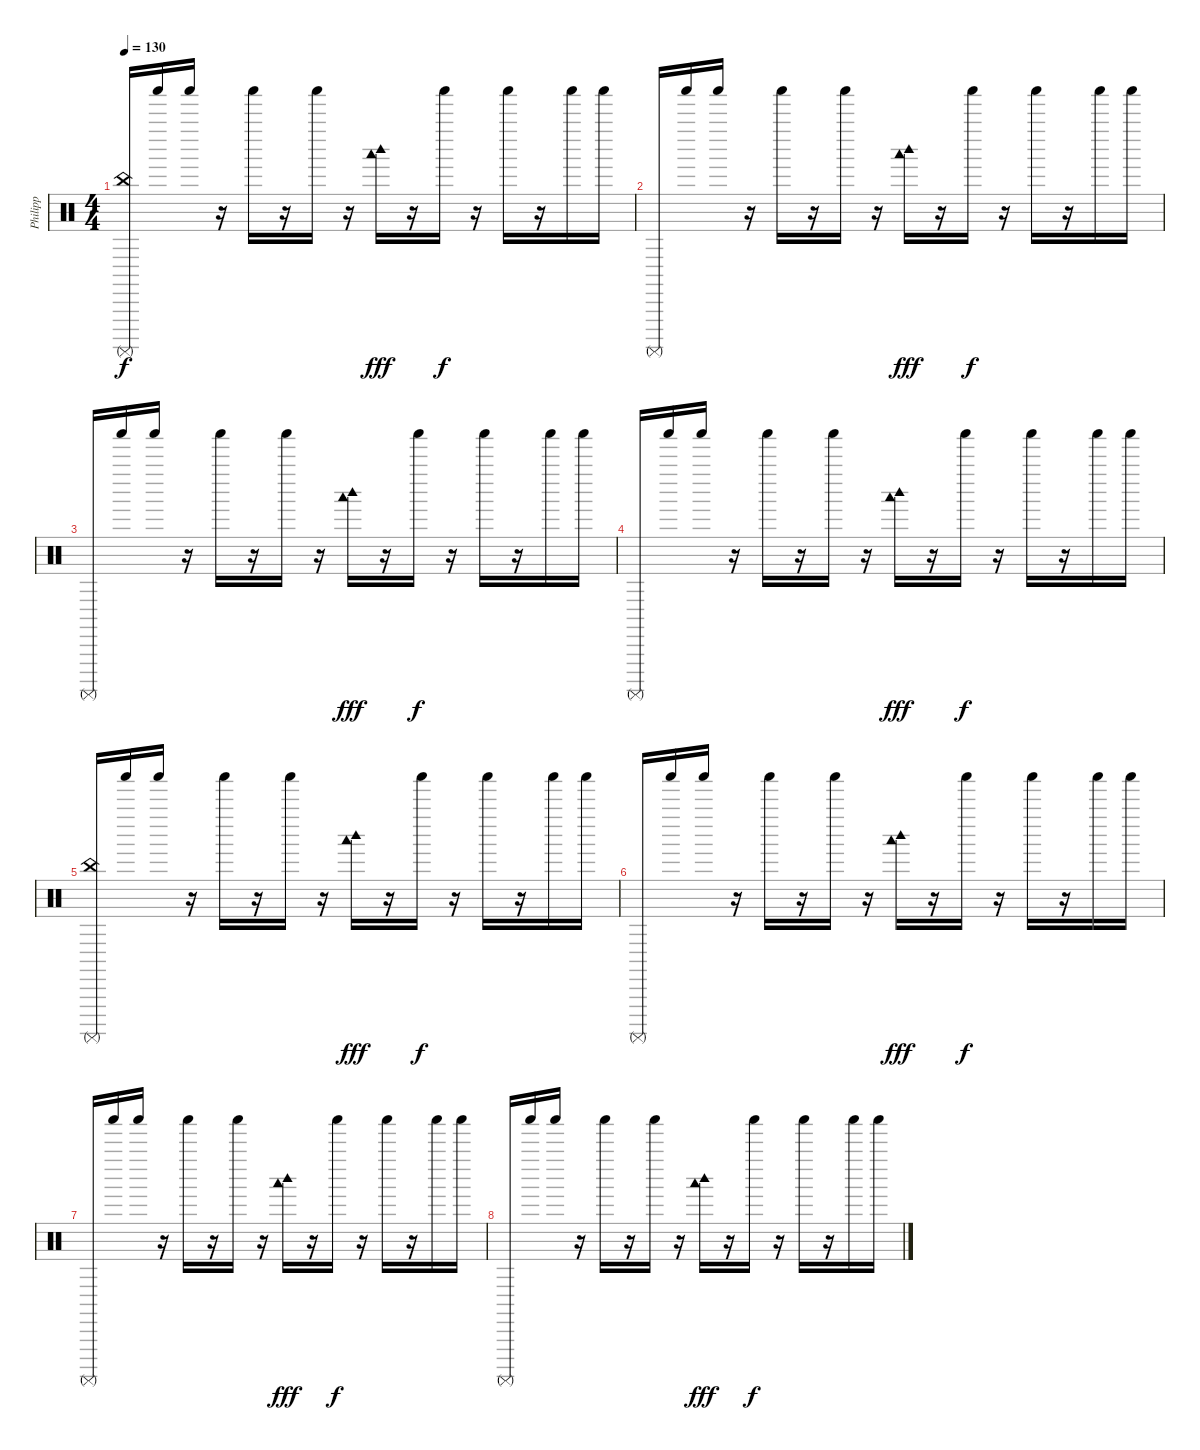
\track ("Philipp" "Philipp") {instrument percussion}
\staff {score}
\articulation defaults
\ts (4 4)
\tempo 130
\clef neutral
\ks c
("China (hit)" "Surdo (mute)").16{dy f} "Shaker (hit)".16 "Shaker (hit)".16 r.16 "Shaker (hit)".16 r.16 "Shaker (hit)".16 r.16 ("Woodblock low (hit)" "Woodblock high (hit)").16{dy fff} r.16 "Shaker (hit)".16{dy f} r.16 "Shaker (hit)".16 r.16 "Shaker (hit)".16 "Shaker (hit)".16 |
"Surdo (mute)".16 "Shaker (hit)".16 "Shaker (hit)".16 r.16 "Shaker (hit)".16 r.16 "Shaker (hit)".16 r.16 ("Woodblock low (hit)" "Woodblock high (hit)").16{dy fff} r.16 "Shaker (hit)".16{dy f} r.16 "Shaker (hit)".16 r.16 "Shaker (hit)".16 "Shaker (hit)".16 |
"Surdo (mute)".16 "Shaker (hit)".16 "Shaker (hit)".16 r.16 "Shaker (hit)".16 r.16 "Shaker (hit)".16 r.16 ("Woodblock low (hit)" "Woodblock high (hit)").16{dy fff} r.16 "Shaker (hit)".16{dy f} r.16 "Shaker (hit)".16 r.16 "Shaker (hit)".16 "Shaker (hit)".16 |
"Surdo (mute)".16 "Shaker (hit)".16 "Shaker (hit)".16 r.16 "Shaker (hit)".16 r.16 "Shaker (hit)".16 r.16 ("Woodblock low (hit)" "Woodblock high (hit)").16{dy fff} r.16 "Shaker (hit)".16{dy f} r.16 "Shaker (hit)".16 r.16 "Shaker (hit)".16 "Shaker (hit)".16 |
("China (hit)" "Surdo (mute)").16 "Shaker (hit)".16 "Shaker (hit)".16 r.16 "Shaker (hit)".16 r.16 "Shaker (hit)".16 r.16 ("Woodblock low (hit)" "Woodblock high (hit)").16{dy fff} r.16 "Shaker (hit)".16{dy f} r.16 "Shaker (hit)".16 r.16 "Shaker (hit)".16 "Shaker (hit)".16 |
"Surdo (mute)".16 "Shaker (hit)".16 "Shaker (hit)".16 r.16 "Shaker (hit)".16 r.16 "Shaker (hit)".16 r.16 ("Woodblock low (hit)" "Woodblock high (hit)").16{dy fff} r.16 "Shaker (hit)".16{dy f} r.16 "Shaker (hit)".16 r.16 "Shaker (hit)".16 "Shaker (hit)".16 |
"Surdo (mute)".16 "Shaker (hit)".16 "Shaker (hit)".16 r.16 "Shaker (hit)".16 r.16 "Shaker (hit)".16 r.16 ("Woodblock low (hit)" "Woodblock high (hit)").16{dy fff} r.16 "Shaker (hit)".16{dy f} r.16 "Shaker (hit)".16 r.16 "Shaker (hit)".16 "Shaker (hit)".16 |
"Surdo (mute)".16 "Shaker (hit)".16 "Shaker (hit)".16 r.16 "Shaker (hit)".16 r.16 "Shaker (hit)".16 r.16 ("Woodblock low (hit)" "Woodblock high (hit)").16{dy fff} r.16 "Shaker (hit)".16{dy f} r.16 "Shaker (hit)".16 r.16 "Shaker (hit)".16 "Shaker (hit)".16
